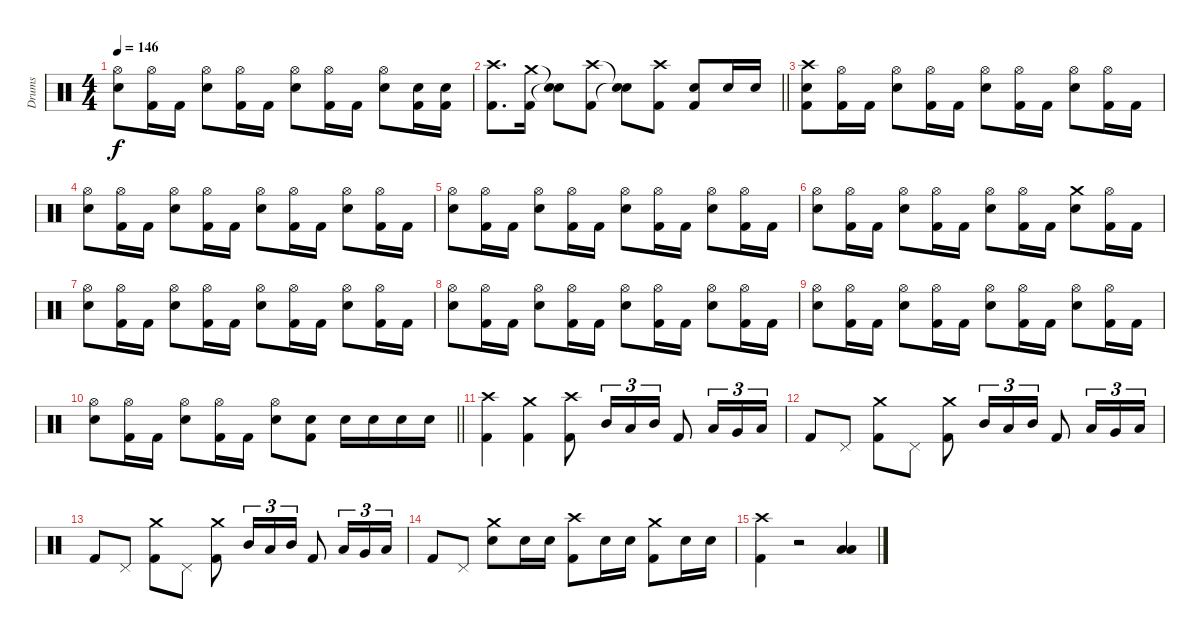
\track ("Drums" "Drums") {instrument percussion}
\staff {score}
\articulation defaults
\ts (4 4)
\tempo 146
\clef neutral
\ks c
("Hi-Hat (open)" "Snare (hit) 2").8{dy f} ("Hi-Hat (open)" "Kick (hit) 2").16 "Kick (hit) 2".16 ("Hi-Hat (open)" "Snare (hit) 2").8 ("Hi-Hat (open)" "Kick (hit) 2").16 "Kick (hit) 2".16 ("Hi-Hat (open)" "Snare (hit) 2").8 ("Hi-Hat (open)" "Kick (hit) 2").16 "Kick (hit) 2".16 ("Hi-Hat (open)" "Snare (hit) 2").8 ("Snare (hit) 2" "Kick (hit) 2").16 ("Snare (hit) 2" "Kick (hit) 2").16 |
\barLineRight lightlight
("Crash high (hit)" "Kick (hit) 2").8{d} ("Crash medium (hit)" "Kick (hit) 2").16 ("Snare (hit)"{t} "Snare (hit)"{t}).8 ("Crash high (hit)" "Kick (hit) 2").8 ("Snare (hit)"{t} "Snare (hit)"{t}).8 ("Crash high (hit)" "Kick (hit) 2").8 ("Snare (hit) 2" "Kick (hit) 2").8 "Snare (hit) 2".16 "Snare (hit) 2".16 |
("Crash high (hit)" "Snare (hit) 2" "Kick (hit) 2").8 ("Hi-Hat (open)" "Kick (hit) 2").16 "Kick (hit) 2".16 ("Hi-Hat (open)" "Snare (hit) 2").8 ("Hi-Hat (open)" "Kick (hit) 2").16 "Kick (hit) 2".16 ("Hi-Hat (open)" "Snare (hit) 2").8 ("Hi-Hat (open)" "Kick (hit) 2").16 "Kick (hit) 2".16 ("Hi-Hat (open)" "Snare (hit) 2").8 ("Hi-Hat (open)" "Kick (hit) 2").16 "Kick (hit) 2".16 |
("Hi-Hat (open)" "Snare (hit) 2").8 ("Hi-Hat (open)" "Kick (hit) 2").16 "Kick (hit) 2".16 ("Hi-Hat (open)" "Snare (hit) 2").8 ("Hi-Hat (open)" "Kick (hit) 2").16 "Kick (hit) 2".16 ("Hi-Hat (open)" "Snare (hit) 2").8 ("Hi-Hat (open)" "Kick (hit) 2").16 "Kick (hit) 2".16 ("Hi-Hat (open)" "Snare (hit) 2").8 ("Hi-Hat (open)" "Kick (hit) 2").16 "Kick (hit) 2".16 |
("Hi-Hat (open)" "Snare (hit) 2").8 ("Hi-Hat (open)" "Kick (hit) 2").16 "Kick (hit) 2".16 ("Hi-Hat (open)" "Snare (hit) 2").8 ("Hi-Hat (open)" "Kick (hit) 2").16 "Kick (hit) 2".16 ("Hi-Hat (open)" "Snare (hit) 2").8 ("Hi-Hat (open)" "Kick (hit) 2").16 "Kick (hit) 2".16 ("Hi-Hat (open)" "Snare (hit) 2").8 ("Hi-Hat (open)" "Kick (hit) 2").16 "Kick (hit) 2".16 |
("Hi-Hat (open)" "Snare (hit) 2").8 ("Hi-Hat (open)" "Kick (hit) 2").16 "Kick (hit) 2".16 ("Hi-Hat (open)" "Snare (hit) 2").8 ("Hi-Hat (open)" "Kick (hit) 2").16 "Kick (hit) 2".16 ("Hi-Hat (open)" "Snare (hit) 2").8 ("Hi-Hat (open)" "Kick (hit) 2").16 "Kick (hit) 2".16 ("Crash medium (hit)" "Snare (hit) 2").8 ("Hi-Hat (open)" "Kick (hit) 2").16 "Kick (hit) 2".16 |
("Hi-Hat (open)" "Snare (hit) 2").8 ("Hi-Hat (open)" "Kick (hit) 2").16 "Kick (hit) 2".16 ("Hi-Hat (open)" "Snare (hit) 2").8 ("Hi-Hat (open)" "Kick (hit) 2").16 "Kick (hit) 2".16 ("Hi-Hat (open)" "Snare (hit) 2").8 ("Hi-Hat (open)" "Kick (hit) 2").16 "Kick (hit) 2".16 ("Hi-Hat (open)" "Snare (hit) 2").8 ("Hi-Hat (open)" "Kick (hit) 2").16 "Kick (hit) 2".16 |
("Hi-Hat (open)" "Snare (hit) 2").8 ("Hi-Hat (open)" "Kick (hit) 2").16 "Kick (hit) 2".16 ("Hi-Hat (open)" "Snare (hit) 2").8 ("Hi-Hat (open)" "Kick (hit) 2").16 "Kick (hit) 2".16 ("Hi-Hat (open)" "Snare (hit) 2").8 ("Hi-Hat (open)" "Kick (hit) 2").16 "Kick (hit) 2".16 ("Hi-Hat (open)" "Snare (hit) 2").8 ("Hi-Hat (open)" "Kick (hit) 2").16 "Kick (hit) 2".16 |
("Hi-Hat (open)" "Snare (hit) 2").8 ("Hi-Hat (open)" "Kick (hit) 2").16 "Kick (hit) 2".16 ("Hi-Hat (open)" "Snare (hit) 2").8 ("Hi-Hat (open)" "Kick (hit) 2").16 "Kick (hit) 2".16 ("Hi-Hat (open)" "Snare (hit) 2").8 ("Hi-Hat (open)" "Kick (hit) 2").16 "Kick (hit) 2".16 ("Hi-Hat (open)" "Snare (hit) 2").8 ("Hi-Hat (open)" "Kick (hit) 2").16 "Kick (hit) 2".16 |
\barLineRight lightlight
("Hi-Hat (open)" "Snare (hit) 2").8 ("Hi-Hat (open)" "Kick (hit) 2").16 "Kick (hit) 2".16 ("Hi-Hat (open)" "Snare (hit) 2").8 ("Hi-Hat (open)" "Kick (hit) 2").16 "Kick (hit) 2".16 ("Hi-Hat (open)" "Snare (hit) 2").8 ("Snare (hit) 2" "Kick (hit) 2").8 "Snare (hit) 2".16 "Snare (hit) 2".16 "Snare (hit) 2".16 "Snare (hit) 2".16 |
("Crash high (hit)" "Kick (hit) 2").4 ("Crash medium (hit)" "Kick (hit) 2").4 ("Crash high (hit)" "Kick (hit) 2").8 "Mid Tom (hit)".16{tu (3 2)} "Low Tom (hit)".16{tu (3 2)} "Mid Tom (hit)".16{tu (3 2)} "Kick (hit) 2".8 "Low Tom (hit)".16{tu (3 2)} "Very Low Tom (hit)".16{tu (3 2)} "Low Tom (hit)".16{tu (3 2)} |
"Kick (hit) 2".8 "Pedal Hi-Hat (hit)".8 ("Crash medium (hit)" "Kick (hit) 2").8 "Pedal Hi-Hat (hit)".8 ("Crash medium (hit)" "Kick (hit) 2").8 "Mid Tom (hit)".16{tu (3 2)} "Low Tom (hit)".16{tu (3 2)} "Mid Tom (hit)".16{tu (3 2)} "Kick (hit) 2".8 "Low Tom (hit)".16{tu (3 2)} "Very Low Tom (hit)".16{tu (3 2)} "Low Tom (hit)".16{tu (3 2)} |
"Kick (hit) 2".8 "Pedal Hi-Hat (hit)".8 ("Crash medium (hit)" "Kick (hit) 2").8 "Pedal Hi-Hat (hit)".8 ("Crash medium (hit)" "Kick (hit) 2").8 "Mid Tom (hit)".16{tu (3 2)} "Low Tom (hit)".16{tu (3 2)} "Mid Tom (hit)".16{tu (3 2)} "Kick (hit) 2".8 "Low Tom (hit)".16{tu (3 2)} "Very Low Tom (hit)".16{tu (3 2)} "Low Tom (hit)".16{tu (3 2)} |
"Kick (hit) 2".8 "Pedal Hi-Hat (hit)".8 ("Crash medium (hit)" "Snare (hit) 2").8 "Snare (hit) 2".16 "Snare (hit) 2".16 ("Crash high (hit)" "Kick (hit) 2").8 "Snare (hit) 2".16 "Snare (hit) 2".16 ("Crash medium (hit)" "Kick (hit) 2").8 "Snare (hit) 2".16 "Snare (hit) 2".16 |
("Crash high (hit)" "Kick (hit) 2").4 r.2 ("Low Tom (hit)" "Low Tom (hit)").4
